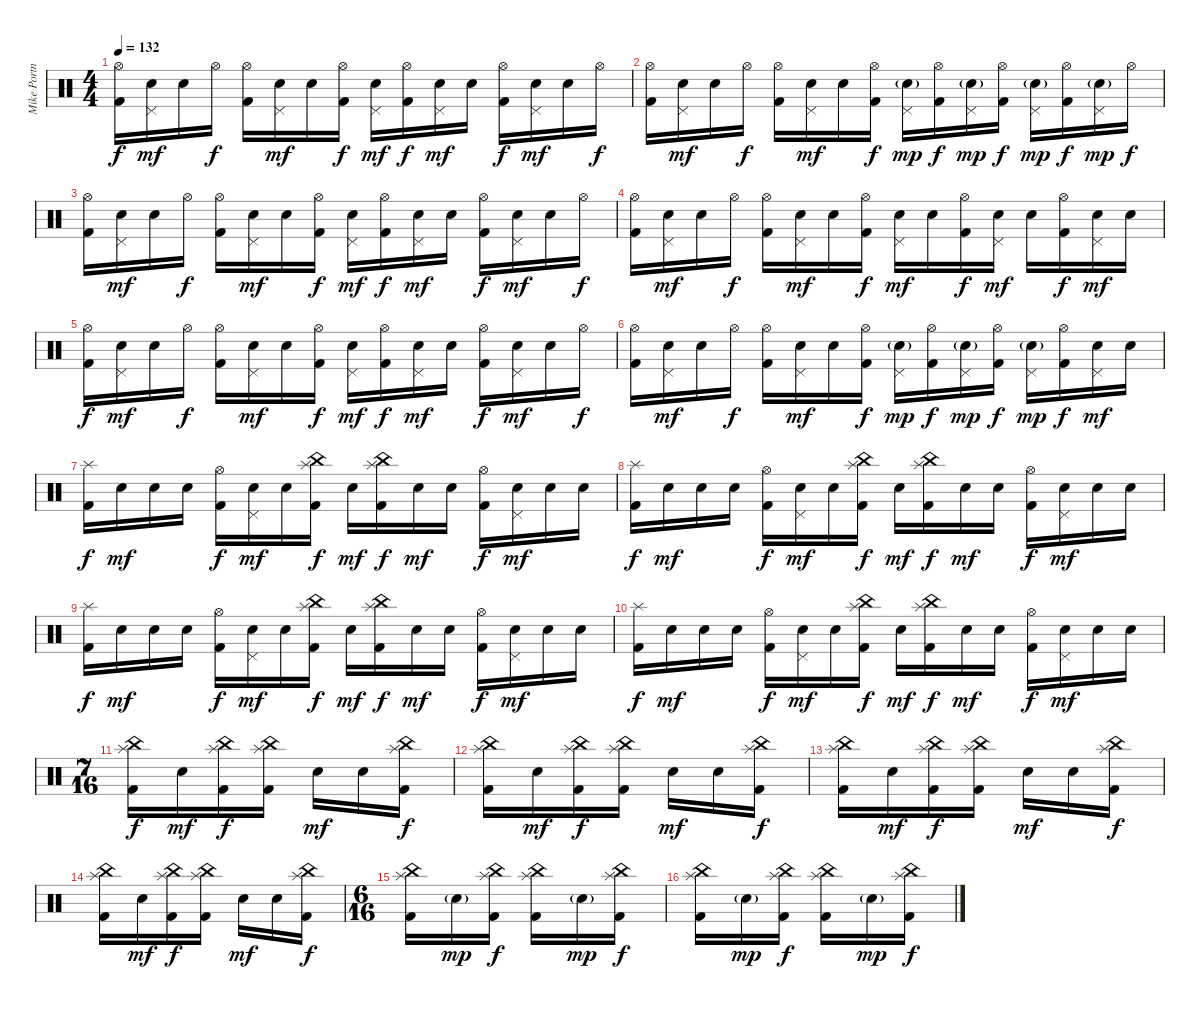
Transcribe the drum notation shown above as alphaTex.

\track ("Mike Portnoy" "Mike Portn") {instrument percussion}
\staff {score}
\articulation defaults
\ts (4 4)
\tempo 132
\clef neutral
\ks c
("Hi-Hat (open)" "Kick (hit) 2").16{dy f} ("Pedal Hi-Hat (hit)" "Electric Snare (hit)").16{dy mf} "Electric Snare (hit)".16 "Hi-Hat (open)".16{dy f} ("Hi-Hat (open)" "Kick (hit) 2").16 ("Pedal Hi-Hat (hit)" "Electric Snare (hit)").16{dy mf} "Electric Snare (hit)".16 ("Hi-Hat (open)" "Kick (hit) 2").16{dy f} ("Pedal Hi-Hat (hit)" "Electric Snare (hit)").16{dy mf} ("Hi-Hat (open)" "Kick (hit) 2").16{dy f} ("Pedal Hi-Hat (hit)" "Electric Snare (hit)").16{dy mf} "Electric Snare (hit)".16 ("Hi-Hat (open)" "Kick (hit) 2").16{dy f} ("Pedal Hi-Hat (hit)" "Electric Snare (hit)").16{dy mf} "Electric Snare (hit)".16 "Hi-Hat (open)".16{dy f} |
("Hi-Hat (open)" "Kick (hit) 2").16 ("Pedal Hi-Hat (hit)" "Electric Snare (hit)").16{dy mf} "Electric Snare (hit)".16 "Hi-Hat (open)".16{dy f} ("Hi-Hat (open)" "Kick (hit) 2").16 ("Pedal Hi-Hat (hit)" "Electric Snare (hit)").16{dy mf} "Electric Snare (hit)".16 ("Hi-Hat (open)" "Kick (hit) 2").16{dy f} ("Pedal Hi-Hat (hit)" "Electric Snare (hit)"{g}).16{dy mp} ("Hi-Hat (open)" "Kick (hit) 2").16{dy f} ("Pedal Hi-Hat (hit)" "Electric Snare (hit)"{g}).16{dy mp} ("Hi-Hat (open)" "Kick (hit) 2").16{dy f} ("Pedal Hi-Hat (hit)" "Electric Snare (hit)"{g}).16{dy mp} ("Hi-Hat (open)" "Kick (hit) 2").16{dy f} ("Pedal Hi-Hat (hit)" "Electric Snare (hit)"{g}).16{dy mp} "Hi-Hat (open)".16{dy f} |
("Hi-Hat (open)" "Kick (hit) 2").16 ("Pedal Hi-Hat (hit)" "Electric Snare (hit)").16{dy mf} "Electric Snare (hit)".16 "Hi-Hat (open)".16{dy f} ("Hi-Hat (open)" "Kick (hit) 2").16 ("Pedal Hi-Hat (hit)" "Electric Snare (hit)").16{dy mf} "Electric Snare (hit)".16 ("Hi-Hat (open)" "Kick (hit) 2").16{dy f} ("Pedal Hi-Hat (hit)" "Electric Snare (hit)").16{dy mf} ("Hi-Hat (open)" "Kick (hit) 2").16{dy f} ("Pedal Hi-Hat (hit)" "Electric Snare (hit)").16{dy mf} "Electric Snare (hit)".16 ("Hi-Hat (open)" "Kick (hit) 2").16{dy f} ("Pedal Hi-Hat (hit)" "Electric Snare (hit)").16{dy mf} "Electric Snare (hit)".16 "Hi-Hat (open)".16{dy f} |
("Hi-Hat (open)" "Kick (hit) 2").16 ("Pedal Hi-Hat (hit)" "Electric Snare (hit)").16{dy mf} "Electric Snare (hit)".16 "Hi-Hat (open)".16{dy f} ("Hi-Hat (open)" "Kick (hit) 2").16 ("Pedal Hi-Hat (hit)" "Electric Snare (hit)").16{dy mf} "Electric Snare (hit)".16 ("Hi-Hat (open)" "Kick (hit) 2").16{dy f} ("Pedal Hi-Hat (hit)" "Electric Snare (hit)").16{dy mf} "Electric Snare (hit)".16 ("Hi-Hat (open)" "Kick (hit) 2").16{dy f} ("Pedal Hi-Hat (hit)" "Electric Snare (hit)").16{dy mf} "Electric Snare (hit)".16 ("Hi-Hat (open)" "Kick (hit) 2").16{dy f} ("Pedal Hi-Hat (hit)" "Electric Snare (hit)").16{dy mf} "Electric Snare (hit)".16 |
("Hi-Hat (open)" "Kick (hit) 2").16{dy f} ("Pedal Hi-Hat (hit)" "Electric Snare (hit)").16{dy mf} "Electric Snare (hit)".16 "Hi-Hat (open)".16{dy f} ("Hi-Hat (open)" "Kick (hit) 2").16 ("Pedal Hi-Hat (hit)" "Electric Snare (hit)").16{dy mf} "Electric Snare (hit)".16 ("Hi-Hat (open)" "Kick (hit) 2").16{dy f} ("Pedal Hi-Hat (hit)" "Electric Snare (hit)").16{dy mf} ("Hi-Hat (open)" "Kick (hit) 2").16{dy f} ("Pedal Hi-Hat (hit)" "Electric Snare (hit)").16{dy mf} "Electric Snare (hit)".16 ("Hi-Hat (open)" "Kick (hit) 2").16{dy f} ("Pedal Hi-Hat (hit)" "Electric Snare (hit)").16{dy mf} "Electric Snare (hit)".16 "Hi-Hat (open)".16{dy f} |
("Hi-Hat (open)" "Kick (hit) 2").16 ("Pedal Hi-Hat (hit)" "Electric Snare (hit)").16{dy mf} "Electric Snare (hit)".16 "Hi-Hat (open)".16{dy f} ("Hi-Hat (open)" "Kick (hit) 2").16 ("Pedal Hi-Hat (hit)" "Electric Snare (hit)").16{dy mf} "Electric Snare (hit)".16 ("Hi-Hat (open)" "Kick (hit) 2").16{dy f} ("Pedal Hi-Hat (hit)" "Electric Snare (hit)"{g}).16{dy mp} ("Hi-Hat (open)" "Kick (hit) 2").16{dy f} ("Pedal Hi-Hat (hit)" "Electric Snare (hit)"{g}).16{dy mp} ("Hi-Hat (open)" "Kick (hit) 2").16{dy f} ("Pedal Hi-Hat (hit)" "Electric Snare (hit)"{g}).16{dy mp} ("Hi-Hat (open)" "Kick (hit) 2").16{dy f} ("Pedal Hi-Hat (hit)" "Electric Snare (hit)").16{dy mf} "Electric Snare (hit)".16 |
("Splash (hit)" "Kick (hit) 2").16{dy f} "Electric Snare (hit)".16{dy mf} "Electric Snare (hit)".16 "Electric Snare (hit)".16 ("Hi-Hat (open)" "Kick (hit) 2").16{dy f} ("Pedal Hi-Hat (hit)" "Electric Snare (hit)").16{dy mf} "Electric Snare (hit)".16 ("China (hit)" "Splash (hit)" "Kick (hit) 2").16{dy f} "Electric Snare (hit)".16{dy mf} ("China (hit)" "Splash (hit)" "Kick (hit) 2").16{dy f} "Electric Snare (hit)".16{dy mf} "Electric Snare (hit)".16 ("Hi-Hat (open)" "Kick (hit) 2").16{dy f} ("Pedal Hi-Hat (hit)" "Electric Snare (hit)").16{dy mf} "Electric Snare (hit)".16 "Electric Snare (hit)".16 |
("Splash (hit)" "Kick (hit) 2").16{dy f} "Electric Snare (hit)".16{dy mf} "Electric Snare (hit)".16 "Electric Snare (hit)".16 ("Hi-Hat (open)" "Kick (hit) 2").16{dy f} ("Pedal Hi-Hat (hit)" "Electric Snare (hit)").16{dy mf} "Electric Snare (hit)".16 ("China (hit)" "Splash (hit)" "Kick (hit) 2").16{dy f} "Electric Snare (hit)".16{dy mf} ("China (hit)" "Splash (hit)" "Kick (hit) 2").16{dy f} "Electric Snare (hit)".16{dy mf} "Electric Snare (hit)".16 ("Hi-Hat (open)" "Kick (hit) 2").16{dy f} ("Pedal Hi-Hat (hit)" "Electric Snare (hit)").16{dy mf} "Electric Snare (hit)".16 "Electric Snare (hit)".16 |
("Splash (hit)" "Kick (hit) 2").16{dy f} "Electric Snare (hit)".16{dy mf} "Electric Snare (hit)".16 "Electric Snare (hit)".16 ("Hi-Hat (open)" "Kick (hit) 2").16{dy f} ("Pedal Hi-Hat (hit)" "Electric Snare (hit)").16{dy mf} "Electric Snare (hit)".16 ("China (hit)" "Splash (hit)" "Kick (hit) 2").16{dy f} "Electric Snare (hit)".16{dy mf} ("China (hit)" "Splash (hit)" "Kick (hit) 2").16{dy f} "Electric Snare (hit)".16{dy mf} "Electric Snare (hit)".16 ("Hi-Hat (open)" "Kick (hit) 2").16{dy f} ("Pedal Hi-Hat (hit)" "Electric Snare (hit)").16{dy mf} "Electric Snare (hit)".16 "Electric Snare (hit)".16 |
("Splash (hit)" "Kick (hit) 2").16{dy f} "Electric Snare (hit)".16{dy mf} "Electric Snare (hit)".16 "Electric Snare (hit)".16 ("Hi-Hat (open)" "Kick (hit) 2").16{dy f} ("Pedal Hi-Hat (hit)" "Electric Snare (hit)").16{dy mf} "Electric Snare (hit)".16 ("China (hit)" "Splash (hit)" "Kick (hit) 2").16{dy f} "Electric Snare (hit)".16{dy mf} ("China (hit)" "Splash (hit)" "Kick (hit) 2").16{dy f} "Electric Snare (hit)".16{dy mf} "Electric Snare (hit)".16 ("Hi-Hat (open)" "Kick (hit) 2").16{dy f} ("Pedal Hi-Hat (hit)" "Electric Snare (hit)").16{dy mf} "Electric Snare (hit)".16 "Electric Snare (hit)".16 |
\ts (7 16)
("China (hit)" "Splash (hit)" "Kick (hit) 2").16{dy f} "Electric Snare (hit)".16{dy mf} ("China (hit)" "Splash (hit)" "Kick (hit) 2").16{dy f} ("China (hit)" "Splash (hit)" "Kick (hit) 2").16 "Electric Snare (hit)".16{dy mf} "Electric Snare (hit)".16 ("China (hit)" "Splash (hit)" "Kick (hit) 2").16{dy f} |
("China (hit)" "Splash (hit)" "Kick (hit) 2").16 "Electric Snare (hit)".16{dy mf} ("China (hit)" "Splash (hit)" "Kick (hit) 2").16{dy f} ("China (hit)" "Splash (hit)" "Kick (hit) 2").16 "Electric Snare (hit)".16{dy mf} "Electric Snare (hit)".16 ("China (hit)" "Splash (hit)" "Kick (hit) 2").16{dy f} |
("China (hit)" "Splash (hit)" "Kick (hit) 2").16 "Electric Snare (hit)".16{dy mf} ("China (hit)" "Splash (hit)" "Kick (hit) 2").16{dy f} ("China (hit)" "Splash (hit)" "Kick (hit) 2").16 "Electric Snare (hit)".16{dy mf} "Electric Snare (hit)".16 ("China (hit)" "Splash (hit)" "Kick (hit) 2").16{dy f} |
("China (hit)" "Splash (hit)" "Kick (hit) 2").16 "Electric Snare (hit)".16{dy mf} ("China (hit)" "Splash (hit)" "Kick (hit) 2").16{dy f} ("China (hit)" "Splash (hit)" "Kick (hit) 2").16 "Electric Snare (hit)".16{dy mf} "Electric Snare (hit)".16 ("China (hit)" "Splash (hit)" "Kick (hit) 2").16{dy f} |
\ts (6 16)
("Splash (hit)" "China (hit)" "Kick (hit) 2").16 "Electric Snare (hit)"{g}.16{dy mp} ("Splash (hit)" "China (hit)" "Kick (hit) 2").16{dy f} ("Splash (hit)" "China (hit)" "Kick (hit) 2").16 "Electric Snare (hit)"{g}.16{dy mp} ("Splash (hit)" "China (hit)" "Kick (hit) 2").16{dy f} |
("Splash (hit)" "China (hit)" "Kick (hit) 2").16 "Electric Snare (hit)"{g}.16{dy mp} ("Splash (hit)" "China (hit)" "Kick (hit) 2").16{dy f} ("Splash (hit)" "China (hit)" "Kick (hit) 2").16 "Electric Snare (hit)"{g}.16{dy mp} ("Splash (hit)" "China (hit)" "Kick (hit) 2").16{dy f}
